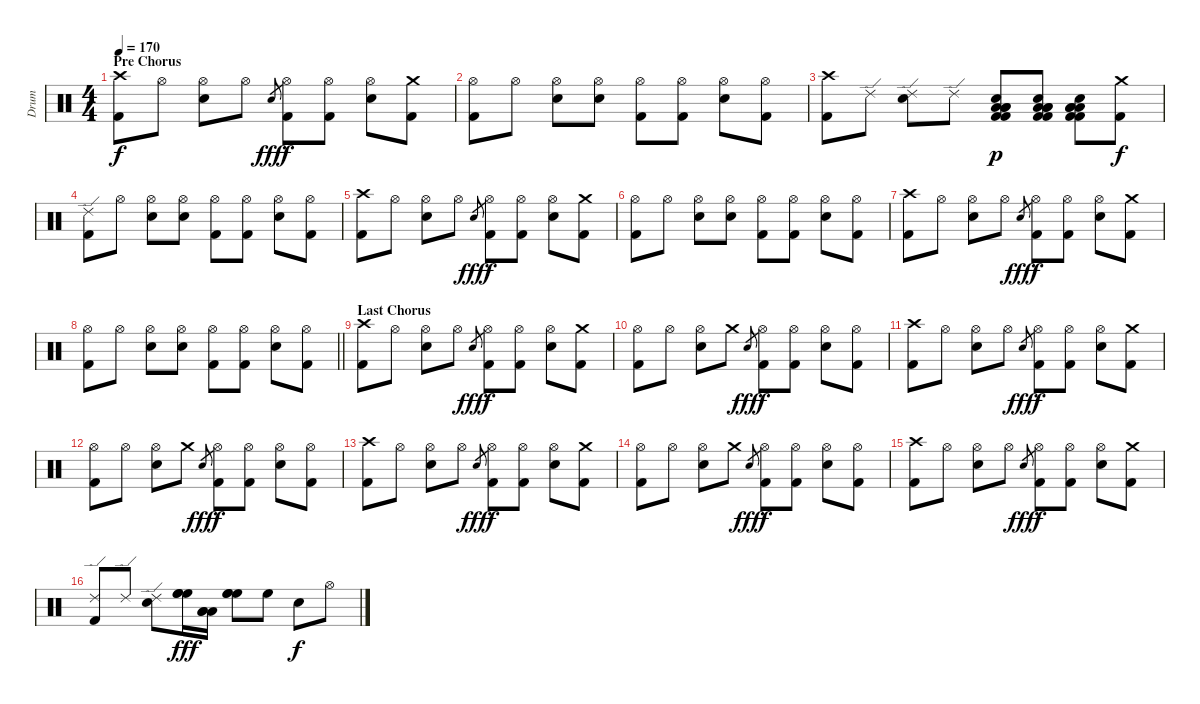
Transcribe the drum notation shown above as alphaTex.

\track ("Drum" "Drum") {instrument percussion}
\staff {score}
\articulation defaults
\ts (4 4)
\section ("" "Pre Chorus")
\tempo 170
\clef neutral
\ks c
("Crash high (hit)" "Kick (hit) 2").8{dy f} "Hi-Hat (open)".8 ("Hi-Hat (open)" "Electric Snare (hit)").8 "Hi-Hat (open)".8 "Electric Snare (hit)".8{gr dy fff} ("Hi-Hat (open)" "Kick (hit) 2").8{dy f} ("Hi-Hat (open)" "Kick (hit) 2").8 ("Hi-Hat (open)" "Electric Snare (hit)").8 ("Crash medium (hit)" "Kick (hit) 2").8 |
("Hi-Hat (open)" "Kick (hit) 2").8 "Hi-Hat (open)".8 ("Hi-Hat (open)" "Electric Snare (hit)").8 ("Hi-Hat (open)" "Electric Snare (hit)").8 ("Hi-Hat (open)" "Kick (hit) 2").8 ("Hi-Hat (open)" "Kick (hit) 2").8 ("Hi-Hat (open)" "Electric Snare (hit)").8 ("Hi-Hat (open)" "Kick (hit) 2").8 |
("Crash high (hit)" "Kick (hit) 2").8 "Ride (edge) 2".8 ("Ride (edge) 2" "Electric Snare (hit)").8 "Ride (edge) 2".8 ("Low Tom (hit)" "Low Floor Tom (hit)" "Low Floor Tom (hit)" "Kick (hit) 2" "Snare (hit) 2" "Kick (hit) 2").8{dy p} ("Low Tom (hit)" "Low Floor Tom (hit)" "Low Floor Tom (hit)" "Kick (hit) 2" "Snare (hit) 2" "Kick (hit) 2").8 ("Low Tom (hit)" "Low Floor Tom (hit)" "Low Floor Tom (hit)" "Kick (hit) 2" "Snare (hit) 2" "Kick (hit) 2").8 ("Crash medium (hit)" "Kick (hit) 2").8{dy f} |
("Ride (edge) 2" "Kick (hit) 2").8 "Hi-Hat (open)".8 ("Hi-Hat (open)" "Electric Snare (hit)").8 ("Hi-Hat (open)" "Electric Snare (hit)").8 ("Hi-Hat (open)" "Kick (hit) 2").8 ("Hi-Hat (open)" "Kick (hit) 2").8 ("Hi-Hat (open)" "Electric Snare (hit)").8 ("Hi-Hat (open)" "Kick (hit) 2").8 |
("Crash high (hit)" "Kick (hit) 2").8 "Hi-Hat (open)".8 ("Hi-Hat (open)" "Electric Snare (hit)").8 "Hi-Hat (open)".8 "Electric Snare (hit)".8{gr dy fff} ("Hi-Hat (open)" "Kick (hit) 2").8{dy f} ("Hi-Hat (open)" "Kick (hit) 2").8 ("Hi-Hat (open)" "Electric Snare (hit)").8 ("Crash medium (hit)" "Kick (hit) 2").8 |
("Hi-Hat (open)" "Kick (hit) 2").8 "Hi-Hat (open)".8 ("Hi-Hat (open)" "Electric Snare (hit)").8 ("Hi-Hat (open)" "Electric Snare (hit)").8 ("Hi-Hat (open)" "Kick (hit) 2").8 ("Hi-Hat (open)" "Kick (hit) 2").8 ("Hi-Hat (open)" "Electric Snare (hit)").8 ("Hi-Hat (open)" "Kick (hit) 2").8 |
("Crash high (hit)" "Kick (hit) 2").8 "Hi-Hat (open)".8 ("Hi-Hat (open)" "Electric Snare (hit)").8 "Hi-Hat (open)".8 "Electric Snare (hit)".8{gr dy fff} ("Hi-Hat (open)" "Kick (hit) 2").8{dy f} ("Hi-Hat (open)" "Kick (hit) 2").8 ("Hi-Hat (open)" "Electric Snare (hit)").8 ("Crash medium (hit)" "Kick (hit) 2").8 |
\barLineRight lightlight
("Hi-Hat (open)" "Kick (hit) 2").8 "Hi-Hat (open)".8 ("Hi-Hat (open)" "Electric Snare (hit)").8 ("Hi-Hat (open)" "Electric Snare (hit)").8 ("Hi-Hat (open)" "Kick (hit) 2").8 ("Hi-Hat (open)" "Kick (hit) 2").8 ("Hi-Hat (open)" "Electric Snare (hit)").8 ("Hi-Hat (open)" "Kick (hit) 2").8 |
\section ("" "Last Chorus")
("Crash high (hit)" "Kick (hit) 2").8 "Hi-Hat (open)".8 ("Hi-Hat (open)" "Electric Snare (hit)").8 "Hi-Hat (open)".8 "Electric Snare (hit)".8{gr dy fff} ("Hi-Hat (open)" "Kick (hit) 2").8{dy f} ("Hi-Hat (open)" "Kick (hit) 2").8 ("Hi-Hat (open)" "Electric Snare (hit)").8 ("Crash medium (hit)" "Kick (hit) 2").8 |
("Hi-Hat (open)" "Kick (hit) 2").8 "Hi-Hat (open)".8 ("Hi-Hat (open)" "Electric Snare (hit)").8 "Crash medium (hit)".8 "Electric Snare (hit)".8{gr dy fff} ("Hi-Hat (open)" "Kick (hit) 2").8{dy f} ("Hi-Hat (open)" "Kick (hit) 2").8 ("Hi-Hat (open)" "Electric Snare (hit)").8 ("Hi-Hat (open)" "Kick (hit) 2").8 |
("Crash high (hit)" "Kick (hit) 2").8 "Hi-Hat (open)".8 ("Hi-Hat (open)" "Electric Snare (hit)").8 "Hi-Hat (open)".8 "Electric Snare (hit)".8{gr dy fff} ("Hi-Hat (open)" "Kick (hit) 2").8{dy f} ("Hi-Hat (open)" "Kick (hit) 2").8 ("Hi-Hat (open)" "Electric Snare (hit)").8 ("Crash medium (hit)" "Kick (hit) 2").8 |
("Hi-Hat (open)" "Kick (hit) 2").8 "Hi-Hat (open)".8 ("Hi-Hat (open)" "Electric Snare (hit)").8 "Crash medium (hit)".8 "Electric Snare (hit)".8{gr dy fff} ("Hi-Hat (open)" "Kick (hit) 2").8{dy f} ("Hi-Hat (open)" "Kick (hit) 2").8 ("Hi-Hat (open)" "Electric Snare (hit)").8 ("Hi-Hat (open)" "Kick (hit) 2").8 |
("Crash high (hit)" "Kick (hit) 2").8 "Hi-Hat (open)".8 ("Hi-Hat (open)" "Electric Snare (hit)").8 "Hi-Hat (open)".8 "Electric Snare (hit)".8{gr dy fff} ("Hi-Hat (open)" "Kick (hit) 2").8{dy f} ("Hi-Hat (open)" "Kick (hit) 2").8 ("Hi-Hat (open)" "Electric Snare (hit)").8 ("Crash medium (hit)" "Kick (hit) 2").8 |
("Hi-Hat (open)" "Kick (hit) 2").8 "Hi-Hat (open)".8 ("Hi-Hat (open)" "Electric Snare (hit)").8 "Crash medium (hit)".8 "Electric Snare (hit)".8{gr dy fff} ("Hi-Hat (open)" "Kick (hit) 2").8{dy f} ("Hi-Hat (open)" "Kick (hit) 2").8 ("Hi-Hat (open)" "Electric Snare (hit)").8 ("Hi-Hat (open)" "Kick (hit) 2").8 |
("Crash high (hit)" "Kick (hit) 2").8 "Hi-Hat (open)".8 ("Hi-Hat (open)" "Electric Snare (hit)").8 "Hi-Hat (open)".8 "Electric Snare (hit)".8{gr dy fff} ("Hi-Hat (open)" "Kick (hit) 2").8{dy f} ("Hi-Hat (open)" "Kick (hit) 2").8 ("Hi-Hat (open)" "Electric Snare (hit)").8 ("Crash medium (hit)" "Kick (hit) 2").8 |
("Ride (edge) 2" "Kick (hit) 2").8 "Ride (edge) 2".8 ("Ride (edge) 2" "Electric Snare (hit)").8 ("High Floor Tom (hit)" "High Floor Tom (hit)" "High Floor Tom (hit)").16{dy fff} ("Low Tom (hit)" "Low Tom (hit)" "Low Tom (hit)").16 ("High Floor Tom (hit)" "High Floor Tom (hit)" "High Floor Tom (hit)").8 "High Floor Tom (hit)".8 "Electric Snare (hit)".8{dy f} "Hi-Hat (open)".8
